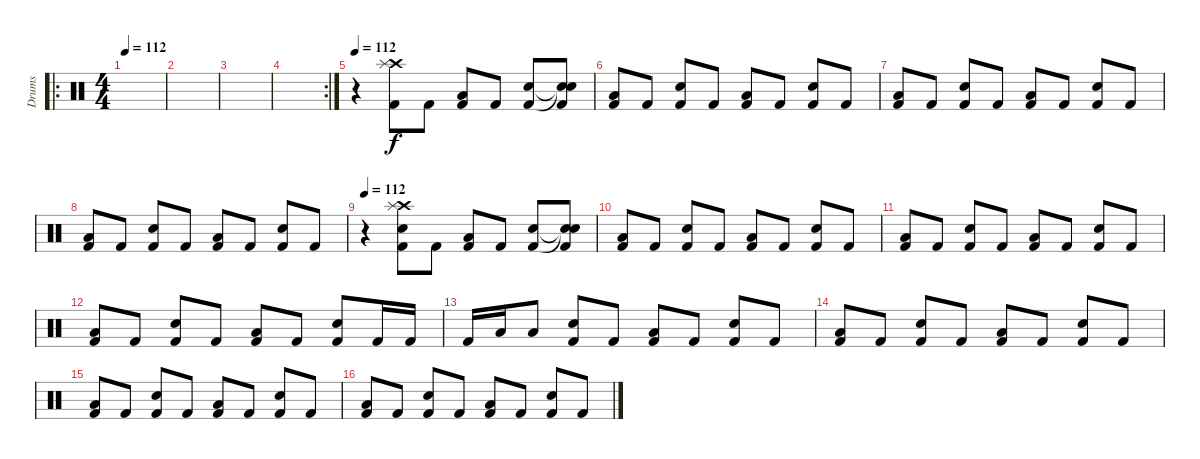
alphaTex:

\track ("Drums" "Drums") {instrument percussion}
\staff {score}
\articulation defaults
\ro
\ts (4 4)
\tempo 112
\clef neutral
\ks c
|
|
|
\rc 2
|
\tempo 112
r.4 ("Crash high (hit)" "Splash (hit)" "Kick (hit) 2").8 "Kick (hit) 2".8 ("Low Floor Tom (hit)" "Kick (hit) 2").8 "Kick (hit) 2".8 ("Snare (hit) 2" "Kick (hit) 2").8 ("Snare (hit)"{t} "Snare (hit)"{t} "Kick (hit) 2").8 |
("Low Floor Tom (hit)" "Kick (hit) 2").8 "Kick (hit) 2".8 ("Snare (hit) 2" "Kick (hit) 2").8 "Kick (hit) 2".8 ("Low Floor Tom (hit)" "Kick (hit) 2").8 "Kick (hit) 2".8 ("Snare (hit) 2" "Kick (hit) 2").8 "Kick (hit) 2".8 |
("Low Floor Tom (hit)" "Kick (hit) 2").8 "Kick (hit) 2".8 ("Snare (hit) 2" "Kick (hit) 2").8 "Kick (hit) 2".8 ("Low Floor Tom (hit)" "Kick (hit) 2").8 "Kick (hit) 2".8 ("Snare (hit) 2" "Kick (hit) 2").8 "Kick (hit) 2".8 |
("Low Floor Tom (hit)" "Kick (hit) 2").8 "Kick (hit) 2".8 ("Snare (hit) 2" "Kick (hit) 2").8 "Kick (hit) 2".8 ("Low Floor Tom (hit)" "Kick (hit) 2").8 "Kick (hit) 2".8 ("Snare (hit) 2" "Kick (hit) 2").8 "Kick (hit) 2".8 |
\tempo 112
r.4 ("Crash high (hit)" "Splash (hit)" "Snare (hit) 2" "Kick (hit) 2").8 "Kick (hit) 2".8 ("Low Floor Tom (hit)" "Kick (hit) 2").8 "Kick (hit) 2".8 ("Snare (hit) 2" "Kick (hit) 2").8 ("Snare (hit)"{t} "Snare (hit)"{t} "Kick (hit) 2").8 |
("Low Floor Tom (hit)" "Kick (hit) 2").8 "Kick (hit) 2".8 ("Snare (hit) 2" "Kick (hit) 2").8 "Kick (hit) 2".8 ("Low Floor Tom (hit)" "Kick (hit) 2").8 "Kick (hit) 2".8 ("Snare (hit) 2" "Kick (hit) 2").8 "Kick (hit) 2".8 |
("Low Floor Tom (hit)" "Kick (hit) 2").8 "Kick (hit) 2".8 ("Snare (hit) 2" "Kick (hit) 2").8 "Kick (hit) 2".8 ("Low Floor Tom (hit)" "Kick (hit) 2").8 "Kick (hit) 2".8 ("Snare (hit) 2" "Kick (hit) 2").8 "Kick (hit) 2".8 |
("Low Floor Tom (hit)" "Kick (hit) 2").8 "Kick (hit) 2".8 ("Snare (hit) 2" "Kick (hit) 2").8 "Kick (hit) 2".8 ("Low Floor Tom (hit)" "Kick (hit) 2").8 "Kick (hit) 2".8 ("Snare (hit) 2" "Kick (hit) 2").8 "Kick (hit) 2".16 "Kick (hit) 2".16 |
"Kick (hit) 2".16 "Low Floor Tom (hit)".16 "Low Floor Tom (hit)".8 ("Snare (hit) 2" "Kick (hit) 2").8 "Kick (hit) 2".8 ("Low Floor Tom (hit)" "Kick (hit) 2").8 "Kick (hit) 2".8 ("Snare (hit) 2" "Kick (hit) 2").8 "Kick (hit) 2".8 |
("Low Floor Tom (hit)" "Kick (hit) 2").8 "Kick (hit) 2".8 ("Snare (hit) 2" "Kick (hit) 2").8 "Kick (hit) 2".8 ("Low Floor Tom (hit)" "Kick (hit) 2").8 "Kick (hit) 2".8 ("Snare (hit) 2" "Kick (hit) 2").8 "Kick (hit) 2".8 |
("Low Floor Tom (hit)" "Kick (hit) 2").8 "Kick (hit) 2".8 ("Snare (hit) 2" "Kick (hit) 2").8 "Kick (hit) 2".8 ("Low Floor Tom (hit)" "Kick (hit) 2").8 "Kick (hit) 2".8 ("Snare (hit) 2" "Kick (hit) 2").8 "Kick (hit) 2".8 |
("Low Floor Tom (hit)" "Kick (hit) 2").8 "Kick (hit) 2".8 ("Snare (hit) 2" "Kick (hit) 2").8 "Kick (hit) 2".8 ("Low Floor Tom (hit)" "Kick (hit) 2").8 "Kick (hit) 2".8 ("Snare (hit) 2" "Kick (hit) 2").8 "Kick (hit) 2".8
